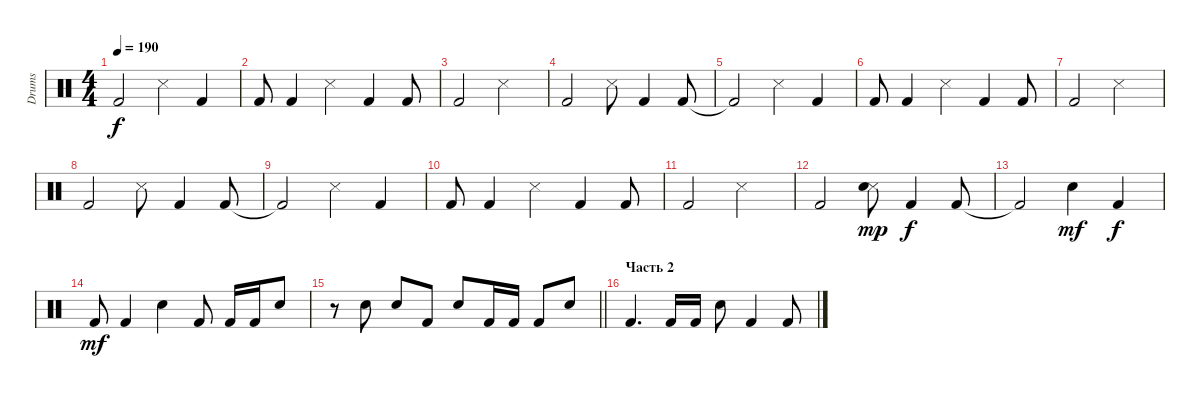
\track ("Drums" "Drums") {instrument percussion}
\staff {score}
\articulation defaults
\ts (4 4)
\tempo 190
\clef neutral
\ks c "Kick (hit) 2"{t}.2{dy f} "Snare (side stick) 3".4 "Kick (hit) 2".4
|
"Kick (hit) 2".8 "Kick (hit) 2".4 "Snare (side stick) 3".4 "Kick (hit) 2".4 "Kick (hit) 2".8 |
"Kick (hit) 2".2 "Snare (side stick) 3".2 |
"Kick (hit) 2".2 "Snare (side stick) 3".8 "Kick (hit) 2".4 "Kick (hit) 2".8 |
"Kick (hit) 2"{t}.2 "Snare (side stick) 3".4 "Kick (hit) 2".4 |
"Kick (hit) 2".8 "Kick (hit) 2".4 "Snare (side stick) 3".4 "Kick (hit) 2".4 "Kick (hit) 2".8 |
"Kick (hit) 2".2 "Snare (side stick) 3".2 |
"Kick (hit) 2".2 "Snare (side stick) 3".8 "Kick (hit) 2".4 "Kick (hit) 2".8 |
"Kick (hit) 2"{t}.2 "Snare (side stick) 3".4 "Kick (hit) 2".4 |
"Kick (hit) 2".8 "Kick (hit) 2".4 "Snare (side stick) 3".4 "Kick (hit) 2".4 "Kick (hit) 2".8 |
"Kick (hit) 2".2 "Snare (side stick) 3".2 |
"Kick (hit) 2".2 ("Snare (side stick) 3" "Snare (hit) 2").8{dy mp} "Kick (hit) 2".4{dy f} "Kick (hit) 2".8 |
"Kick (hit) 2"{t}.2 "Snare (hit) 2".4{dy mf} "Kick (hit) 2".4{dy f} |
"Kick (hit) 2".8{dy mf} "Kick (hit) 2".4 "Snare (hit) 2".4 "Kick (hit) 2".8 "Kick (hit) 2".16 "Kick (hit) 2".16 "Snare (hit) 2".8 |
\barLineRight lightlight
r.8 "Snare (hit) 2".8 "Snare (hit) 2".8 "Kick (hit) 2".8 "Snare (hit) 2".8 "Kick (hit) 2".16 "Kick (hit) 2".16 "Kick (hit) 2".8 "Snare (hit) 2".8 |
\section ("" "Часть 2")
"Kick (hit) 2".4{d} "Kick (hit) 2".16 "Kick (hit) 2".16 "Snare (hit) 2".8 "Kick (hit) 2".4 "Kick (hit) 2".8
